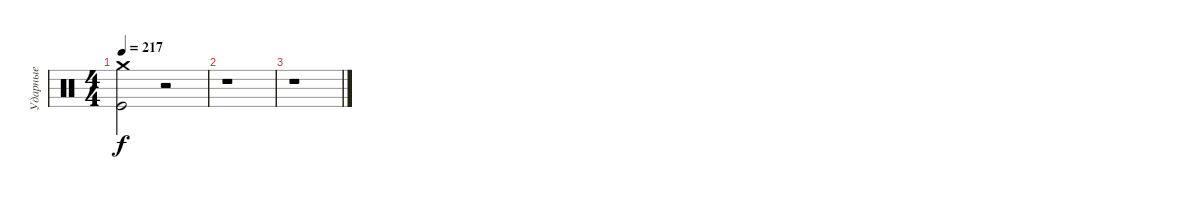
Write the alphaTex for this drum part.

\track ("Ударные" "Ударные") {instrument percussion}
\staff {score}
\articulation defaults
\ts (4 4)
\tempo 217
\clef neutral
\ks c
("Kick (hit)" "Crash medium (hit)").2{dy f} r.2 |
r.1 |
r.1
